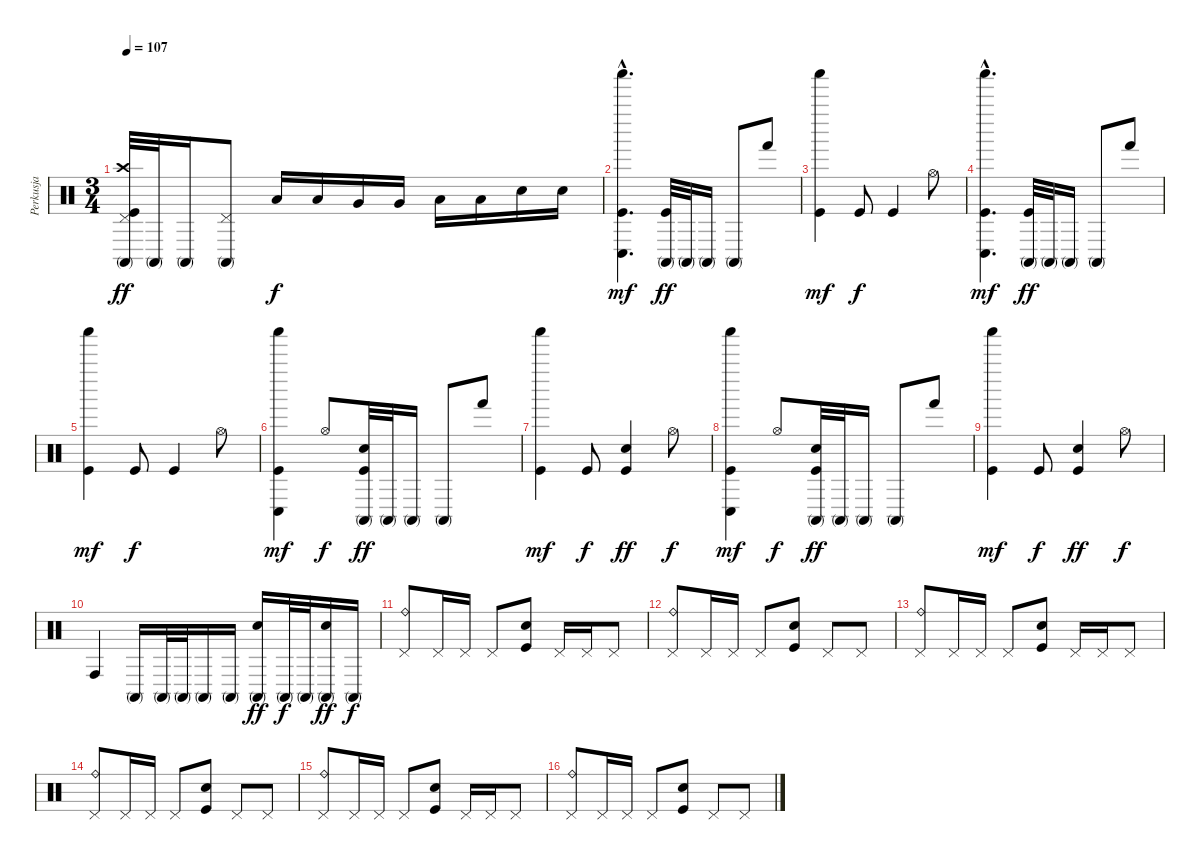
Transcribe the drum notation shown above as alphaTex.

\track ("Perkusja" "Perkusja") {instrument percussion}
\staff {score}
\articulation defaults
\ts (3 4)
\tempo 107
\clef neutral
\ks c
("Conga high (mute)" "Pedal Hi-Hat (hit)" "Crash high (hit)" "Kick (hit)").32{dy ff} "Conga high (mute)".32 "Conga high (mute)".16 ("Conga high (mute)" "Pedal Hi-Hat (hit)").8 "Low Tom (hit)".16{dy f} "Low Tom (hit)".16 "Very Low Tom (hit)".16 "Very Low Tom (hit)".16 "Low Floor Tom (hit)".16 "Low Floor Tom (hit)".16 "Electric Snare (hit)".16 "Electric Snare (hit)".16 |
("Conga low (hit)"{hac} "Shaker (hit)"{hac} "Kick (hit)"{hac}).4{d dy mf} ("Conga high (mute)" "Kick (hit)").32{dy ff} "Conga high (mute)".32 "Conga high (mute)".16 "Conga high (mute)".8 "Hand (hit)".8 |
("Shaker (hit)" "Kick (hit)").4{dy mf} "Kick (hit)".8{dy f} "Kick (hit)".4 "Hi-Hat (open)".8 |
("Conga low (hit)"{hac} "Shaker (hit)"{hac} "Kick (hit)"{hac}).4{d dy mf} ("Conga high (mute)" "Kick (hit)").32{dy ff} "Conga high (mute)".32 "Conga high (mute)".16 "Conga high (mute)".8 "Hand (hit)".8 |
("Shaker (hit)" "Kick (hit)").4{dy mf} "Kick (hit)".8{dy f} "Kick (hit)".4 "Hi-Hat (open)".8 |
("Conga low (hit)" "Shaker (hit)" "Kick (hit)").4{dy mf} "Hi-Hat (open)".8{dy f} ("Conga high (mute)" "Electric Snare (hit)" "Kick (hit)").32{dy ff} "Conga high (mute)".32 "Conga high (mute)".16 "Conga high (mute)".8 "Hand (hit)".8 |
("Shaker (hit)" "Kick (hit)").4{dy mf} "Kick (hit)".8{dy f} ("Electric Snare (hit)" "Kick (hit)").4{dy ff} "Hi-Hat (open)".8{dy f} |
("Conga low (hit)" "Shaker (hit)" "Kick (hit)").4{dy mf} "Hi-Hat (open)".8{dy f} ("Conga high (mute)" "Electric Snare (hit)" "Kick (hit)").32{dy ff} "Conga high (mute)".32 "Conga high (mute)".16 "Conga high (mute)".8 "Hand (hit)".8 |
("Shaker (hit)" "Kick (hit)").4{dy mf} "Kick (hit)".8{dy f} ("Electric Snare (hit)" "Kick (hit)").4{dy ff} "Hi-Hat (open)".8{dy f} |
"Conga high (hit)".4 "Conga high (mute)".16 "Conga high (mute)".32 "Conga high (mute)".32 "Conga high (mute)".16 "Conga high (mute)".16 ("Conga high (mute)" "Electric Snare (hit)").16{dy ff} "Conga high (mute)".32{dy f} "Conga high (mute)".32 ("Conga high (mute)" "Electric Snare (hit)").16{dy ff} "Conga high (mute)".16{dy f} |
("Pedal Hi-Hat (hit)" "Ride (bell)").8 "Pedal Hi-Hat (hit)".16 "Pedal Hi-Hat (hit)".16 "Pedal Hi-Hat (hit)".8 ("Electric Snare (hit)" "Kick (hit)").8 "Pedal Hi-Hat (hit)".16 "Pedal Hi-Hat (hit)".16 "Pedal Hi-Hat (hit)".8 |
("Pedal Hi-Hat (hit)" "Ride (bell)").8 "Pedal Hi-Hat (hit)".16 "Pedal Hi-Hat (hit)".16 "Pedal Hi-Hat (hit)".8 ("Electric Snare (hit)" "Kick (hit)").8 "Pedal Hi-Hat (hit)".8 "Pedal Hi-Hat (hit)".8 |
("Pedal Hi-Hat (hit)" "Ride (bell)").8 "Pedal Hi-Hat (hit)".16 "Pedal Hi-Hat (hit)".16 "Pedal Hi-Hat (hit)".8 ("Electric Snare (hit)" "Kick (hit)").8 "Pedal Hi-Hat (hit)".16 "Pedal Hi-Hat (hit)".16 "Pedal Hi-Hat (hit)".8 |
("Pedal Hi-Hat (hit)" "Ride (bell)").8 "Pedal Hi-Hat (hit)".16 "Pedal Hi-Hat (hit)".16 "Pedal Hi-Hat (hit)".8 ("Electric Snare (hit)" "Kick (hit)").8 "Pedal Hi-Hat (hit)".8 "Pedal Hi-Hat (hit)".8 |
("Pedal Hi-Hat (hit)" "Ride (bell)").8 "Pedal Hi-Hat (hit)".16 "Pedal Hi-Hat (hit)".16 "Pedal Hi-Hat (hit)".8 ("Electric Snare (hit)" "Kick (hit)").8 "Pedal Hi-Hat (hit)".16 "Pedal Hi-Hat (hit)".16 "Pedal Hi-Hat (hit)".8 |
("Pedal Hi-Hat (hit)" "Ride (bell)").8 "Pedal Hi-Hat (hit)".16 "Pedal Hi-Hat (hit)".16 "Pedal Hi-Hat (hit)".8 ("Electric Snare (hit)" "Kick (hit)").8 "Pedal Hi-Hat (hit)".8 "Pedal Hi-Hat (hit)".8
